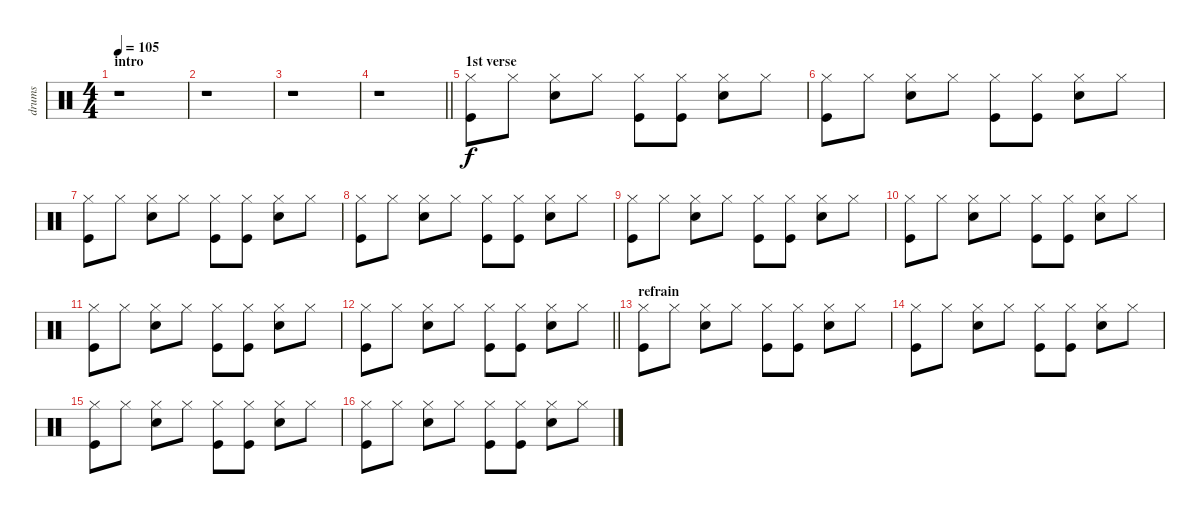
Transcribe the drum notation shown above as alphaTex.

\track ("drums" "drums") {instrument percussion}
\staff {score}
\articulation defaults
\ts (4 4)
\section ("" "intro")
\tempo 105
\clef neutral
\ks c
r.1{dy f} |
r.1 |
r.1 |
\barLineRight lightlight
r.1 |
\section ("" "1st verse")
("Hi-Hat (closed)" "Kick (hit)").8 "Hi-Hat (closed)".8 ("Hi-Hat (closed)" "Snare (hit) 2").8 "Hi-Hat (closed)".8 ("Hi-Hat (closed)" "Kick (hit)").8 ("Hi-Hat (closed)" "Kick (hit)").8 ("Hi-Hat (closed)" "Snare (hit) 2").8 "Hi-Hat (closed)".8 |
("Hi-Hat (closed)" "Kick (hit)").8 "Hi-Hat (closed)".8 ("Hi-Hat (closed)" "Snare (hit) 2").8 "Hi-Hat (closed)".8 ("Hi-Hat (closed)" "Kick (hit)").8 ("Hi-Hat (closed)" "Kick (hit)").8 ("Hi-Hat (closed)" "Snare (hit) 2").8 "Hi-Hat (closed)".8 |
("Hi-Hat (closed)" "Kick (hit)").8 "Hi-Hat (closed)".8 ("Hi-Hat (closed)" "Snare (hit) 2").8 "Hi-Hat (closed)".8 ("Hi-Hat (closed)" "Kick (hit)").8 ("Hi-Hat (closed)" "Kick (hit)").8 ("Hi-Hat (closed)" "Snare (hit) 2").8 "Hi-Hat (closed)".8 |
("Hi-Hat (closed)" "Kick (hit)").8 "Hi-Hat (closed)".8 ("Hi-Hat (closed)" "Snare (hit) 2").8 "Hi-Hat (closed)".8 ("Hi-Hat (closed)" "Kick (hit)").8 ("Hi-Hat (closed)" "Kick (hit)").8 ("Hi-Hat (closed)" "Snare (hit) 2").8 "Hi-Hat (closed)".8 |
("Hi-Hat (closed)" "Kick (hit)").8 "Hi-Hat (closed)".8 ("Hi-Hat (closed)" "Snare (hit) 2").8 "Hi-Hat (closed)".8 ("Hi-Hat (closed)" "Kick (hit)").8 ("Hi-Hat (closed)" "Kick (hit)").8 ("Hi-Hat (closed)" "Snare (hit) 2").8 "Hi-Hat (closed)".8 |
("Hi-Hat (closed)" "Kick (hit)").8 "Hi-Hat (closed)".8 ("Hi-Hat (closed)" "Snare (hit) 2").8 "Hi-Hat (closed)".8 ("Hi-Hat (closed)" "Kick (hit)").8 ("Hi-Hat (closed)" "Kick (hit)").8 ("Hi-Hat (closed)" "Snare (hit) 2").8 "Hi-Hat (closed)".8 |
("Hi-Hat (closed)" "Kick (hit)").8 "Hi-Hat (closed)".8 ("Hi-Hat (closed)" "Snare (hit) 2").8 "Hi-Hat (closed)".8 ("Hi-Hat (closed)" "Kick (hit)").8 ("Hi-Hat (closed)" "Kick (hit)").8 ("Hi-Hat (closed)" "Snare (hit) 2").8 "Hi-Hat (closed)".8 |
\barLineRight lightlight
("Hi-Hat (closed)" "Kick (hit)").8 "Hi-Hat (closed)".8 ("Hi-Hat (closed)" "Snare (hit) 2").8 "Hi-Hat (closed)".8 ("Hi-Hat (closed)" "Kick (hit)").8 ("Hi-Hat (closed)" "Kick (hit)").8 ("Hi-Hat (closed)" "Snare (hit) 2").8 "Hi-Hat (closed)".8 |
\section ("" "refrain")
("Hi-Hat (closed)" "Kick (hit)").8 "Hi-Hat (closed)".8 ("Hi-Hat (closed)" "Snare (hit) 2").8 "Hi-Hat (closed)".8 ("Hi-Hat (closed)" "Kick (hit)").8 ("Hi-Hat (closed)" "Kick (hit)").8 ("Hi-Hat (closed)" "Snare (hit) 2").8 "Hi-Hat (closed)".8 |
("Hi-Hat (closed)" "Kick (hit)").8 "Hi-Hat (closed)".8 ("Hi-Hat (closed)" "Snare (hit) 2").8 "Hi-Hat (closed)".8 ("Hi-Hat (closed)" "Kick (hit)").8 ("Hi-Hat (closed)" "Kick (hit)").8 ("Hi-Hat (closed)" "Snare (hit) 2").8 "Hi-Hat (closed)".8 |
("Hi-Hat (closed)" "Kick (hit)").8 "Hi-Hat (closed)".8 ("Hi-Hat (closed)" "Snare (hit) 2").8 "Hi-Hat (closed)".8 ("Hi-Hat (closed)" "Kick (hit)").8 ("Hi-Hat (closed)" "Kick (hit)").8 ("Hi-Hat (closed)" "Snare (hit) 2").8 "Hi-Hat (closed)".8 |
("Hi-Hat (closed)" "Kick (hit)").8 "Hi-Hat (closed)".8 ("Hi-Hat (closed)" "Snare (hit) 2").8 "Hi-Hat (closed)".8 ("Hi-Hat (closed)" "Kick (hit)").8 ("Hi-Hat (closed)" "Kick (hit)").8 ("Hi-Hat (closed)" "Snare (hit) 2").8 "Hi-Hat (closed)".8
